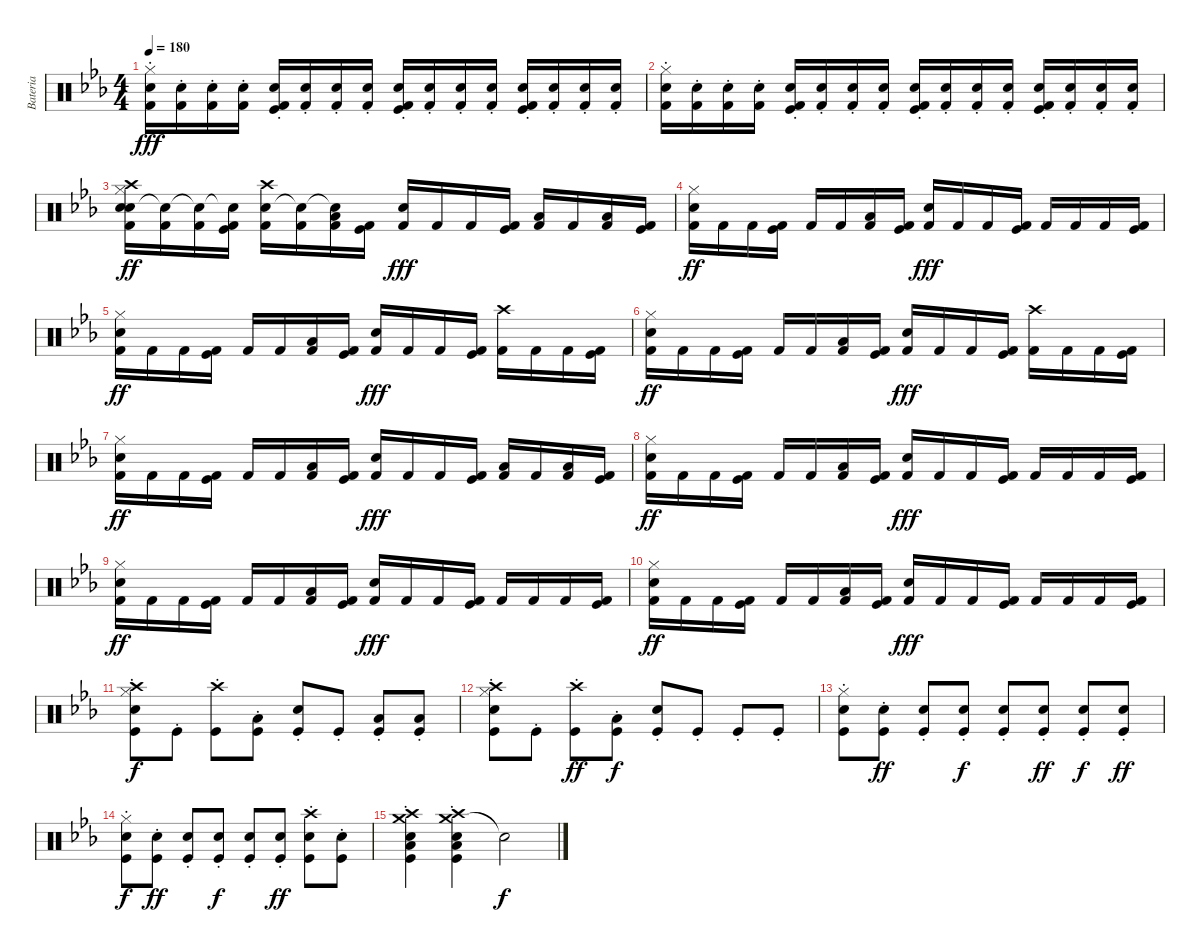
\track ("Bateria" "Bateria") {instrument percussion}
\staff {score}
\articulation defaults
\ts (4 4)
\tempo 180
\clef neutral
\ks eb
("Hi-Hat (closed)" "Snare (hit) 2" "Kick (hit) 2"{st}).16{dy fff} ("Snare (hit) 2" "Kick (hit) 2"{st}).16 ("Snare (hit) 2" "Kick (hit) 2"{st}).16 ("Snare (hit) 2" "Kick (hit) 2"{st}).16 ("Snare (hit) 2" "Kick (hit)"{st} "Kick (hit) 2"{st}).16 ("Snare (hit) 2" "Kick (hit) 2"{st}).16 ("Snare (hit) 2" "Kick (hit) 2"{st}).16 ("Snare (hit) 2" "Kick (hit) 2"{st}).16 ("Snare (hit) 2" "Kick (hit)"{st} "Kick (hit) 2"{st}).16 ("Snare (hit) 2" "Kick (hit) 2"{st}).16 ("Snare (hit) 2" "Kick (hit) 2"{st}).16 ("Snare (hit) 2" "Kick (hit) 2"{st}).16 ("Snare (hit) 2" "Kick (hit)"{st} "Kick (hit) 2"{st}).16 ("Snare (hit) 2" "Kick (hit) 2"{st}).16 ("Snare (hit) 2" "Kick (hit) 2"{st}).16 ("Snare (hit) 2" "Kick (hit) 2"{st}).16 |
("Hi-Hat (closed)" "Snare (hit) 2" "Kick (hit) 2"{st}).16 ("Snare (hit) 2" "Kick (hit) 2"{st}).16 ("Snare (hit) 2" "Kick (hit) 2"{st}).16 ("Snare (hit) 2" "Kick (hit) 2"{st}).16 ("Snare (hit) 2" "Kick (hit)"{st} "Kick (hit) 2"{st}).16 ("Snare (hit) 2" "Kick (hit) 2"{st}).16 ("Snare (hit) 2" "Kick (hit) 2"{st}).16 ("Snare (hit) 2" "Kick (hit) 2"{st}).16 ("Snare (hit) 2" "Kick (hit)"{st} "Kick (hit) 2"{st}).16 ("Snare (hit) 2" "Kick (hit) 2"{st}).16 ("Snare (hit) 2" "Kick (hit) 2"{st}).16 ("Snare (hit) 2" "Kick (hit) 2"{st}).16 ("Snare (hit) 2" "Kick (hit)"{st} "Kick (hit) 2"{st}).16 ("Snare (hit) 2" "Kick (hit) 2"{st}).16 ("Snare (hit) 2" "Kick (hit) 2"{st}).16 ("Snare (hit) 2" "Kick (hit) 2"{st}).16 |
("Snare (hit) 2" "Crash high (hit)" "Hi-Hat (closed)" "Snare (hit) 2" "Kick (hit) 2").16{dy ff} ("Snare (hit)"{t} "Kick (hit) 2").16 ("Snare (hit)"{t} "Kick (hit) 2").16 ("Snare (hit)"{t} "Kick (hit)" "Kick (hit) 2").16 ("Snare (hit) 2" "Crash high (hit)" "Kick (hit) 2").16 ("Snare (hit)"{t} "Kick (hit) 2").16 ("Snare (hit)"{t} "Low Tom (hit)" "Kick (hit) 2").16 ("Kick (hit)" "Kick (hit) 2").16 ("Snare (hit) 2" "Kick (hit) 2").16{dy fff} "Kick (hit) 2".16 "Kick (hit) 2".16 ("Kick (hit)" "Kick (hit) 2").16 ("Low Tom (hit)" "Kick (hit) 2").16 "Kick (hit) 2".16 ("Low Tom (hit)" "Kick (hit) 2").16 ("Kick (hit)" "Kick (hit) 2").16 |
("Hi-Hat (closed)" "Snare (hit) 2" "Kick (hit) 2").16{dy ff} "Kick (hit) 2".16 "Kick (hit) 2".16 ("Kick (hit)" "Kick (hit) 2").16 "Kick (hit) 2".16 "Kick (hit) 2".16 ("Low Tom (hit)" "Kick (hit) 2").16 ("Kick (hit)" "Kick (hit) 2").16 ("Snare (hit) 2" "Kick (hit) 2").16{dy fff} "Kick (hit) 2".16 "Kick (hit) 2".16 ("Kick (hit)" "Kick (hit) 2").16 "Kick (hit) 2".16 "Kick (hit) 2".16 "Kick (hit) 2".16 ("Kick (hit)" "Kick (hit) 2").16 |
("Hi-Hat (closed)" "Snare (hit) 2" "Kick (hit) 2").16{dy ff} "Kick (hit) 2".16 "Kick (hit) 2".16 ("Kick (hit)" "Kick (hit) 2").16 "Kick (hit) 2".16 "Kick (hit) 2".16 ("Low Tom (hit)" "Kick (hit) 2").16 ("Kick (hit)" "Kick (hit) 2").16 ("Snare (hit) 2" "Kick (hit) 2").16{dy fff} "Kick (hit) 2".16 "Kick (hit) 2".16 ("Kick (hit)" "Kick (hit) 2").16 ("Crash high (hit)" "Kick (hit) 2").16 "Kick (hit) 2".16 "Kick (hit) 2".16 ("Kick (hit)" "Kick (hit) 2").16 |
("Hi-Hat (closed)" "Snare (hit) 2" "Kick (hit) 2").16{dy ff} "Kick (hit) 2".16 "Kick (hit) 2".16 ("Kick (hit)" "Kick (hit) 2").16 "Kick (hit) 2".16 "Kick (hit) 2".16 ("Low Tom (hit)" "Kick (hit) 2").16 ("Kick (hit)" "Kick (hit) 2").16 ("Snare (hit) 2" "Kick (hit) 2").16{dy fff} "Kick (hit) 2".16 "Kick (hit) 2".16 ("Kick (hit)" "Kick (hit) 2").16 ("Crash high (hit)" "Kick (hit) 2").16 "Kick (hit) 2".16 "Kick (hit) 2".16 ("Kick (hit)" "Kick (hit) 2").16 |
("Hi-Hat (closed)" "Snare (hit) 2" "Kick (hit) 2").16{dy ff} "Kick (hit) 2".16 "Kick (hit) 2".16 ("Kick (hit)" "Kick (hit) 2").16 "Kick (hit) 2".16 "Kick (hit) 2".16 ("Low Tom (hit)" "Kick (hit) 2").16 ("Kick (hit)" "Kick (hit) 2").16 ("Snare (hit) 2" "Kick (hit) 2").16{dy fff} "Kick (hit) 2".16 "Kick (hit) 2".16 ("Kick (hit)" "Kick (hit) 2").16 ("Low Tom (hit)" "Kick (hit) 2").16 "Kick (hit) 2".16 ("Low Tom (hit)" "Kick (hit) 2").16 ("Kick (hit)" "Kick (hit) 2").16 |
("Hi-Hat (closed)" "Snare (hit) 2" "Kick (hit) 2").16{dy ff} "Kick (hit) 2".16 "Kick (hit) 2".16 ("Kick (hit)" "Kick (hit) 2").16 "Kick (hit) 2".16 "Kick (hit) 2".16 ("Low Tom (hit)" "Kick (hit) 2").16 ("Kick (hit)" "Kick (hit) 2").16 ("Snare (hit) 2" "Kick (hit) 2").16{dy fff} "Kick (hit) 2".16 "Kick (hit) 2".16 ("Kick (hit)" "Kick (hit) 2").16 "Kick (hit) 2".16 "Kick (hit) 2".16 "Kick (hit) 2".16 ("Kick (hit)" "Kick (hit) 2").16 |
("Hi-Hat (closed)" "Snare (hit) 2" "Kick (hit) 2").16{dy ff} "Kick (hit) 2".16 "Kick (hit) 2".16 ("Kick (hit)" "Kick (hit) 2").16 "Kick (hit) 2".16 "Kick (hit) 2".16 ("Low Tom (hit)" "Kick (hit) 2").16 ("Kick (hit)" "Kick (hit) 2").16 ("Snare (hit) 2" "Kick (hit) 2").16{dy fff} "Kick (hit) 2".16 "Kick (hit) 2".16 ("Kick (hit)" "Kick (hit) 2").16 "Kick (hit) 2".16 "Kick (hit) 2".16 "Kick (hit) 2".16 ("Kick (hit)" "Kick (hit) 2").16 |
("Hi-Hat (closed)" "Snare (hit) 2" "Kick (hit) 2").16{dy ff} "Kick (hit) 2".16 "Kick (hit) 2".16 ("Kick (hit)" "Kick (hit) 2").16 "Kick (hit) 2".16 "Kick (hit) 2".16 ("Low Tom (hit)" "Kick (hit) 2").16 ("Kick (hit)" "Kick (hit) 2").16 ("Snare (hit) 2" "Kick (hit) 2").16{dy fff} "Kick (hit) 2".16 "Kick (hit) 2".16 ("Kick (hit)" "Kick (hit) 2").16 "Kick (hit) 2".16 "Kick (hit) 2".16 "Kick (hit) 2".16 ("Kick (hit)" "Kick (hit) 2").16 |
("Crash high (hit)"{st} "Hi-Hat (closed)"{st} "Snare (hit) 2"{st} "Kick (hit)"{st}).8{dy f} "Kick (hit)"{st}.8 ("Crash high (hit)"{st} "Kick (hit)"{st}).8 ("Low Tom (hit)"{st} "Kick (hit)"{st}).8 ("Snare (hit) 2"{st} "Kick (hit)"{st}).8 "Kick (hit)"{st}.8 ("Low Tom (hit)"{st} "Kick (hit)"{st}).8 ("Low Tom (hit)"{st} "Kick (hit)"{st}).8 |
("Crash high (hit)"{st} "Hi-Hat (closed)"{st} "Snare (hit) 2"{st} "Kick (hit)"{st}).8 "Kick (hit)"{st}.8 ("Crash high (hit)"{st} "Kick (hit)"{st}).8{dy ff} ("Low Tom (hit)"{st} "Kick (hit)"{st}).8{dy f} ("Snare (hit) 2"{st} "Kick (hit)"{st}).8 "Kick (hit)"{st}.8 "Kick (hit)"{st}.8 "Kick (hit)"{st}.8 |
("Hi-Hat (closed)"{st} "Snare (hit) 2"{st} "Kick (hit)"{st}).8 ("Snare (hit) 2"{st} "Kick (hit)"{st}).8{dy ff} ("Snare (hit) 2"{st} "Kick (hit)"{st}).8 ("Snare (hit) 2"{st} "Kick (hit)"{st}).8{dy f} ("Snare (hit) 2"{st} "Kick (hit)"{st}).8 ("Snare (hit) 2"{st} "Kick (hit)"{st}).8{dy ff} ("Snare (hit) 2"{st} "Kick (hit)"{st}).8{dy f} ("Snare (hit) 2"{st} "Kick (hit)"{st}).8{dy ff} |
("Hi-Hat (closed)"{st} "Snare (hit) 2"{st} "Kick (hit)"{st}).8{dy f} ("Snare (hit) 2"{st} "Kick (hit)"{st}).8{dy ff} ("Snare (hit) 2"{st} "Kick (hit)"{st}).8 ("Snare (hit) 2"{st} "Kick (hit)"{st}).8{dy f} ("Snare (hit) 2"{st} "Kick (hit)"{st}).8 ("Snare (hit) 2"{st} "Kick (hit)"{st}).8{dy ff} ("Snare (hit) 2"{st} "Crash high (hit)"{st} "Kick (hit)"{st}).8 ("Snare (hit) 2"{st} "Kick (hit)"{st}).8 |
("Crash medium (hit)"{st} "Low Tom (hit)"{st} "Crash high (hit)"{st} "Snare (hit) 2"{st} "Kick (hit)"{st}).4 ("Crash medium (hit)"{st} "Low Tom (hit)"{st} "Crash high (hit)"{st} "Snare (hit) 2"{st} "Kick (hit)"{st}).4 "Snare (hit)"{t}.2{dy f}
